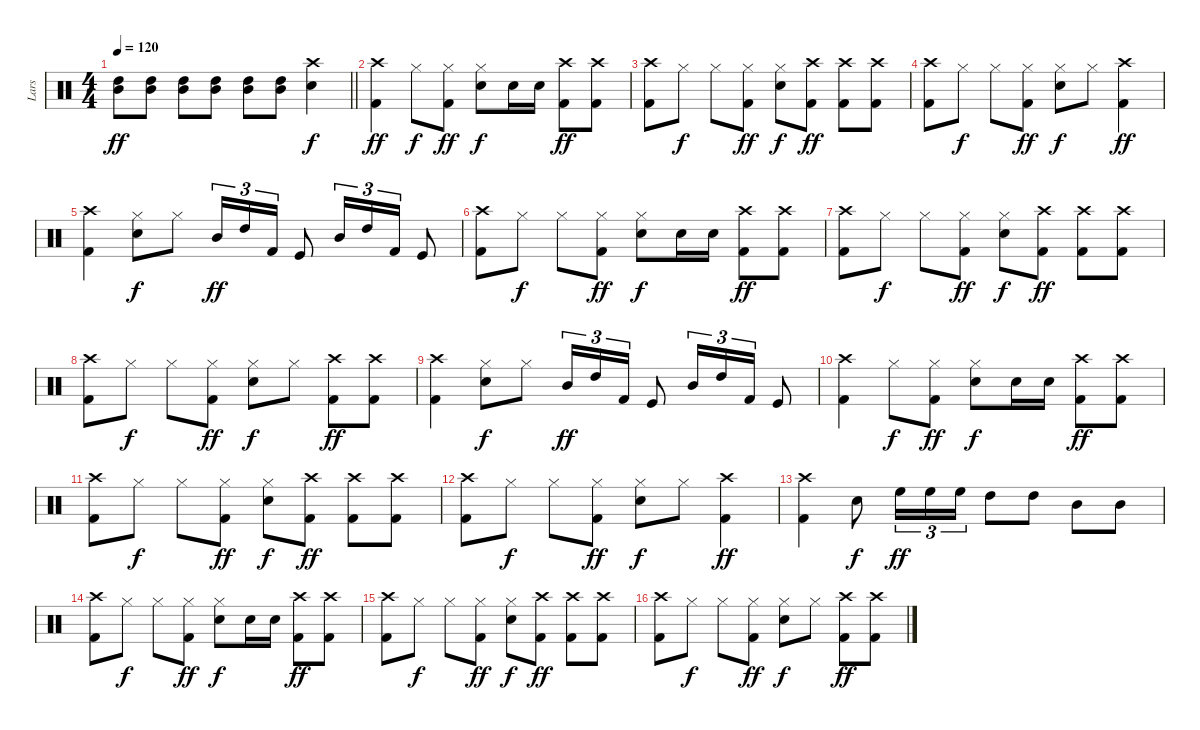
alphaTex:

\track ("Lars" "Lars") {instrument percussion}
\staff {score}
\articulation defaults
\ts (4 4)
\tempo 120
\clef neutral
\barLineRight lightlight
\ks c
("Mid Tom (hit)" "High Tom (hit)").8{dy ff} ("Mid Tom (hit)" "High Tom (hit)").8 ("Mid Tom (hit)" "High Tom (hit)").8 ("Mid Tom (hit)" "High Tom (hit)").8 ("Mid Tom (hit)" "High Tom (hit)").8 ("Mid Tom (hit)" "High Tom (hit)").8 ("Crash high (hit)" "Snare (hit) 2").4{dy f} |
("Crash high (hit)" "Kick (hit) 2").4{dy ff} "Hi-Hat (closed)".8{dy f} ("Hi-Hat (closed)" "Kick (hit) 2").8{dy ff} ("Hi-Hat (closed)" "Snare (hit) 2").8{dy f} "Snare (hit) 2".16 "Snare (hit) 2".16 ("Crash high (hit)" "Kick (hit) 2").8{dy ff} ("Crash high (hit)" "Kick (hit) 2").8 |
("Crash high (hit)" "Kick (hit) 2").8 "Hi-Hat (closed)".8{dy f} "Hi-Hat (closed)".8 ("Hi-Hat (closed)" "Kick (hit) 2").8{dy ff} ("Hi-Hat (closed)" "Snare (hit) 2").8{dy f} ("Crash high (hit)" "Kick (hit) 2").8{dy ff} ("Crash high (hit)" "Kick (hit) 2").8 ("Crash high (hit)" "Kick (hit) 2").8 |
("Crash high (hit)" "Kick (hit) 2").8 "Hi-Hat (closed)".8{dy f} "Hi-Hat (closed)".8 ("Hi-Hat (closed)" "Kick (hit) 2").8{dy ff} ("Hi-Hat (closed)" "Snare (hit) 2").8{dy f} "Hi-Hat (closed)".8 ("Crash high (hit)" "Kick (hit) 2").4{dy ff} |
("Crash high (hit)" "Kick (hit) 2").4 ("Hi-Hat (closed)" "Snare (hit) 2").8{dy f} "Hi-Hat (closed)".8 "Mid Tom (hit)".16{tu (3 2) dy ff} "High Tom (hit)".16{tu (3 2)} "Kick (hit) 2".16{tu (3 2)} "Kick (hit)".8 "Mid Tom (hit)".16{tu (3 2)} "High Tom (hit)".16{tu (3 2)} "Kick (hit) 2".16{tu (3 2)} "Kick (hit)".8 |
("Crash high (hit)" "Kick (hit) 2").8 "Hi-Hat (closed)".8{dy f} "Hi-Hat (closed)".8 ("Hi-Hat (closed)" "Kick (hit) 2").8{dy ff} ("Hi-Hat (closed)" "Snare (hit) 2").8{dy f} "Snare (hit) 2".16 "Snare (hit) 2".16 ("Crash high (hit)" "Kick (hit) 2").8{dy ff} ("Crash high (hit)" "Kick (hit) 2").8 |
("Crash high (hit)" "Kick (hit) 2").8 "Hi-Hat (closed)".8{dy f} "Hi-Hat (closed)".8 ("Hi-Hat (closed)" "Kick (hit) 2").8{dy ff} ("Hi-Hat (closed)" "Snare (hit) 2").8{dy f} ("Crash high (hit)" "Kick (hit) 2").8{dy ff} ("Crash high (hit)" "Kick (hit) 2").8 ("Crash high (hit)" "Kick (hit) 2").8 |
("Crash high (hit)" "Kick (hit) 2").8 "Hi-Hat (closed)".8{dy f} "Hi-Hat (closed)".8 ("Hi-Hat (closed)" "Kick (hit) 2").8{dy ff} ("Hi-Hat (closed)" "Snare (hit) 2").8{dy f} "Hi-Hat (closed)".8 ("Crash high (hit)" "Kick (hit) 2").8{dy ff} ("Crash high (hit)" "Kick (hit) 2").8 |
("Crash high (hit)" "Kick (hit) 2").4 ("Hi-Hat (closed)" "Snare (hit) 2").8{dy f} "Hi-Hat (closed)".8 "Mid Tom (hit)".16{tu (3 2) dy ff} "High Tom (hit)".16{tu (3 2)} "Kick (hit) 2".16{tu (3 2)} "Kick (hit)".8 "Mid Tom (hit)".16{tu (3 2)} "High Tom (hit)".16{tu (3 2)} "Kick (hit) 2".16{tu (3 2)} "Kick (hit)".8 |
("Crash high (hit)" "Kick (hit) 2").4 "Hi-Hat (closed)".8{dy f} ("Hi-Hat (closed)" "Kick (hit) 2").8{dy ff} ("Hi-Hat (closed)" "Snare (hit) 2").8{dy f} "Snare (hit) 2".16 "Snare (hit) 2".16 ("Crash high (hit)" "Kick (hit) 2").8{dy ff} ("Crash high (hit)" "Kick (hit) 2").8 |
("Crash high (hit)" "Kick (hit) 2").8 "Hi-Hat (closed)".8{dy f} "Hi-Hat (closed)".8 ("Hi-Hat (closed)" "Kick (hit) 2").8{dy ff} ("Hi-Hat (closed)" "Snare (hit) 2").8{dy f} ("Crash high (hit)" "Kick (hit) 2").8{dy ff} ("Crash high (hit)" "Kick (hit) 2").8 ("Crash high (hit)" "Kick (hit) 2").8 |
("Crash high (hit)" "Kick (hit) 2").8 "Hi-Hat (closed)".8{dy f} "Hi-Hat (closed)".8 ("Hi-Hat (closed)" "Kick (hit) 2").8{dy ff} ("Hi-Hat (closed)" "Snare (hit) 2").8{dy f} "Hi-Hat (closed)".8 ("Crash high (hit)" "Kick (hit) 2").4{dy ff} |
("Crash high (hit)" "Kick (hit) 2").4 "Snare (hit) 2".8{dy f} "High Floor Tom (hit)".16{tu (3 2) dy ff} "High Floor Tom (hit)".16{tu (3 2)} "High Floor Tom (hit)".16{tu (3 2)} "High Tom (hit)".8 "High Tom (hit)".8 "Mid Tom (hit)".8 "Mid Tom (hit)".8 |
("Crash high (hit)" "Kick (hit) 2").8 "Hi-Hat (closed)".8{dy f} "Hi-Hat (closed)".8 ("Hi-Hat (closed)" "Kick (hit) 2").8{dy ff} ("Hi-Hat (closed)" "Snare (hit) 2").8{dy f} "Snare (hit) 2".16 "Snare (hit) 2".16 ("Crash high (hit)" "Kick (hit) 2").8{dy ff} ("Crash high (hit)" "Kick (hit) 2").8 |
("Crash high (hit)" "Kick (hit) 2").8 "Hi-Hat (closed)".8{dy f} "Hi-Hat (closed)".8 ("Hi-Hat (closed)" "Kick (hit) 2").8{dy ff} ("Hi-Hat (closed)" "Snare (hit) 2").8{dy f} ("Crash high (hit)" "Kick (hit) 2").8{dy ff} ("Crash high (hit)" "Kick (hit) 2").8 ("Crash high (hit)" "Kick (hit) 2").8 |
("Crash high (hit)" "Kick (hit) 2").8 "Hi-Hat (closed)".8{dy f} "Hi-Hat (closed)".8 ("Hi-Hat (closed)" "Kick (hit) 2").8{dy ff} ("Hi-Hat (closed)" "Snare (hit) 2").8{dy f} "Hi-Hat (closed)".8 ("Crash high (hit)" "Kick (hit) 2").8{dy ff} ("Crash high (hit)" "Kick (hit) 2").8
